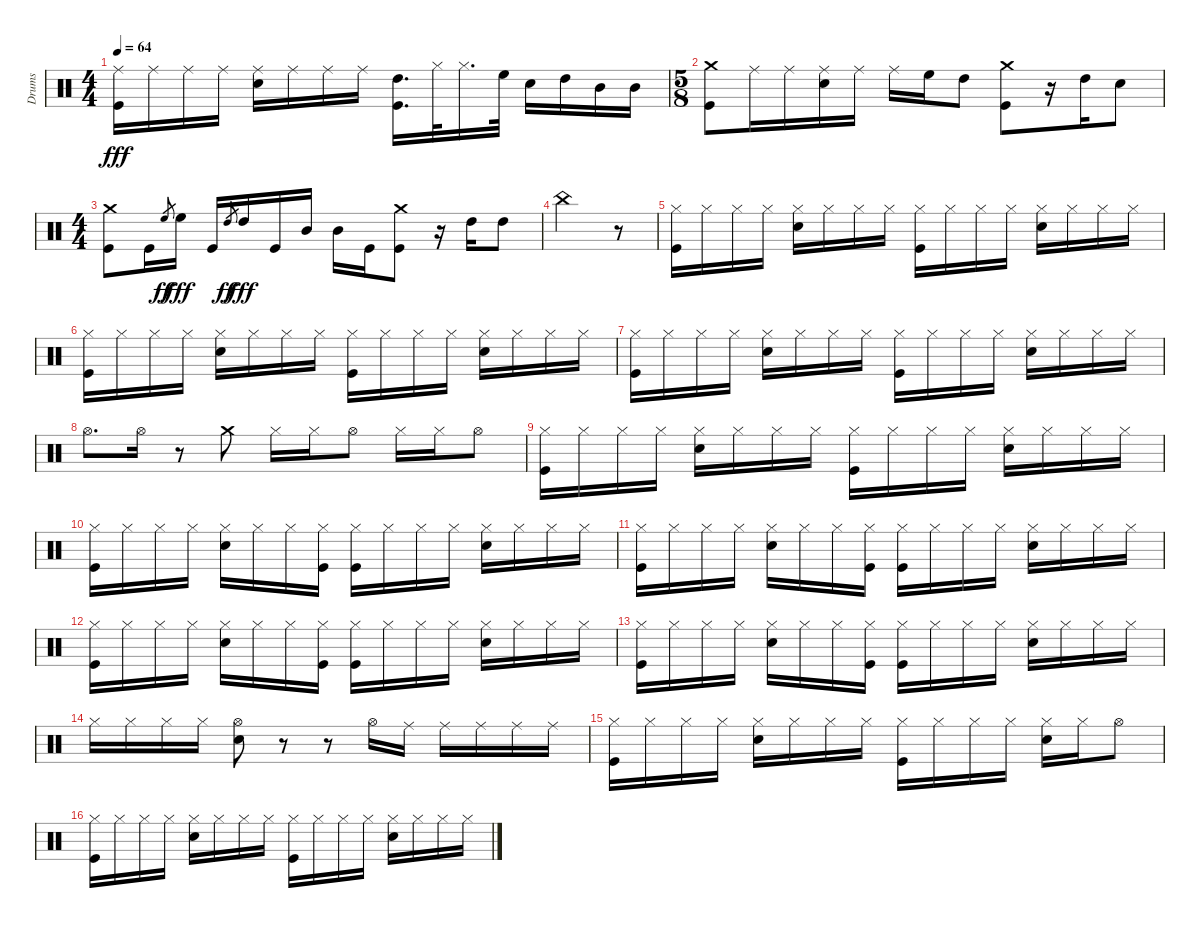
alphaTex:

\track ("Drums" "Drums") {instrument percussion}
\staff {score}
\articulation defaults
\ts (4 4)
\tempo 64
\clef neutral
\scale
0.333333
\ks c
("Ride (middle)" "Kick (hit)").16{dy fff} "Ride (middle)".16 "Ride (middle)".16 "Ride (middle)".16 ("Ride (middle)" "Snare (hit) 2").16 "Ride (middle)".16 "Ride (middle)".16 "Ride (middle)".16 ("High Tom (hit)" "Kick (hit)").16{d} "Hi-Hat (closed)".32 "Hi-Hat (closed)".16{d} "High Floor Tom (hit)".32 "Snare (hit) 2".16 "High Tom (hit)".16 "Mid Tom (hit)".16 "Mid Tom (hit)".16 |
\ts (5 8)
\scale
0.391473 ("Crash medium (hit)" "Kick (hit)").8 "Ride (middle)".16 "Ride (middle)".16 ("Ride (middle)" "Snare (hit) 2").16 "Ride (middle)".16 "Ride (middle)".16 "High Floor Tom (hit)".16 "High Tom (hit)".8 ("Crash medium (hit)" "Kick (hit)").8 r.16 "High Tom (hit)".16 "Snare (hit) 2".8 |
\ts (4 4)
\scale
0.391473 ("Crash medium (hit)" "Kick (hit)").8 "Kick (hit)".16 "High Floor Tom (hit)".8{gr dy ff} "High Floor Tom (hit)".16{dy fff} "Kick (hit)".16 "High Tom (hit)".8{gr dy ff} "High Tom (hit)".16{dy fff} "Kick (hit)".16 "Mid Tom (hit)".16 "Mid Tom (hit)".16 "Kick (hit)".16 ("Crash medium (hit)" "Kick (hit)").8 r.16 "High Tom (hit)".16 "High Tom (hit)".8 |
\scale
0.217054 "China (hit)".2 r.8 |
\scale
0.333333 ("Hi-Hat (closed)" "Kick (hit)").16 "Hi-Hat (closed)".16 "Hi-Hat (closed)".16 "Hi-Hat (closed)".16 ("Hi-Hat (closed)" "Snare (hit) 2").16 "Hi-Hat (closed)".16 "Hi-Hat (closed)".16 "Hi-Hat (closed)".16 ("Hi-Hat (closed)" "Kick (hit)").16 "Hi-Hat (closed)".16 "Hi-Hat (closed)".16 "Hi-Hat (closed)".16 ("Hi-Hat (closed)" "Snare (hit) 2").16 "Hi-Hat (closed)".16 "Hi-Hat (closed)".16 "Hi-Hat (closed)".16 |
\scale
0.333333 ("Hi-Hat (closed)" "Kick (hit)").16 "Hi-Hat (closed)".16 "Hi-Hat (closed)".16 "Hi-Hat (closed)".16 ("Hi-Hat (closed)" "Snare (hit) 2").16 "Hi-Hat (closed)".16 "Hi-Hat (closed)".16 "Hi-Hat (closed)".16 ("Hi-Hat (closed)" "Kick (hit)").16 "Hi-Hat (closed)".16 "Hi-Hat (closed)".16 "Hi-Hat (closed)".16 ("Hi-Hat (closed)" "Snare (hit) 2").16 "Hi-Hat (closed)".16 "Hi-Hat (closed)".16 "Hi-Hat (closed)".16 |
\scale
0.333333 ("Hi-Hat (closed)" "Kick (hit)").16 "Hi-Hat (closed)".16 "Hi-Hat (closed)".16 "Hi-Hat (closed)".16 ("Hi-Hat (closed)" "Snare (hit) 2").16 "Hi-Hat (closed)".16 "Hi-Hat (closed)".16 "Hi-Hat (closed)".16 ("Hi-Hat (closed)" "Kick (hit)").16 "Hi-Hat (closed)".16 "Hi-Hat (closed)".16 "Hi-Hat (closed)".16 ("Hi-Hat (closed)" "Snare (hit) 2").16 "Hi-Hat (closed)".16 "Hi-Hat (closed)".16 "Hi-Hat (closed)".16 |
\scale
0.333333 "Hi-Hat (open)".8{d} "Hi-Hat (open)".16 r.8 "Crash medium (hit)".8 "Hi-Hat (closed)".16 "Hi-Hat (closed)".16 "Hi-Hat (open)".8 "Hi-Hat (closed)".16 "Hi-Hat (closed)".16 "Hi-Hat (open)".8 |
\scale
0.333333 ("Hi-Hat (closed)" "Kick (hit)").16 "Hi-Hat (closed)".16 "Hi-Hat (closed)".16 "Hi-Hat (closed)".16 ("Hi-Hat (closed)" "Snare (hit) 2").16 "Hi-Hat (closed)".16 "Hi-Hat (closed)".16 "Hi-Hat (closed)".16 ("Hi-Hat (closed)" "Kick (hit)").16 "Hi-Hat (closed)".16 "Hi-Hat (closed)".16 "Hi-Hat (closed)".16 ("Hi-Hat (closed)" "Snare (hit) 2").16 "Hi-Hat (closed)".16 "Hi-Hat (closed)".16 "Hi-Hat (closed)".16 |
\scale
0.333333 ("Hi-Hat (closed)" "Kick (hit)").16 "Hi-Hat (closed)".16 "Hi-Hat (closed)".16 "Hi-Hat (closed)".16 ("Hi-Hat (closed)" "Snare (hit) 2").16 "Hi-Hat (closed)".16 "Hi-Hat (closed)".16 ("Hi-Hat (closed)" "Kick (hit)").16 ("Hi-Hat (closed)" "Kick (hit)").16 "Hi-Hat (closed)".16 "Hi-Hat (closed)".16 "Hi-Hat (closed)".16 ("Hi-Hat (closed)" "Snare (hit) 2").16 "Hi-Hat (closed)".16 "Hi-Hat (closed)".16 "Hi-Hat (closed)".16 |
\scale
0.333333 ("Hi-Hat (closed)" "Kick (hit)").16 "Hi-Hat (closed)".16 "Hi-Hat (closed)".16 "Hi-Hat (closed)".16 ("Hi-Hat (closed)" "Snare (hit) 2").16 "Hi-Hat (closed)".16 "Hi-Hat (closed)".16 ("Hi-Hat (closed)" "Kick (hit)").16 ("Hi-Hat (closed)" "Kick (hit)").16 "Hi-Hat (closed)".16 "Hi-Hat (closed)".16 "Hi-Hat (closed)".16 ("Hi-Hat (closed)" "Snare (hit) 2").16 "Hi-Hat (closed)".16 "Hi-Hat (closed)".16 "Hi-Hat (closed)".16 |
\scale
0.333333 ("Hi-Hat (closed)" "Kick (hit)").16 "Hi-Hat (closed)".16 "Hi-Hat (closed)".16 "Hi-Hat (closed)".16 ("Hi-Hat (closed)" "Snare (hit) 2").16 "Hi-Hat (closed)".16 "Hi-Hat (closed)".16 ("Hi-Hat (closed)" "Kick (hit)").16 ("Hi-Hat (closed)" "Kick (hit)").16 "Hi-Hat (closed)".16 "Hi-Hat (closed)".16 "Hi-Hat (closed)".16 ("Hi-Hat (closed)" "Snare (hit) 2").16 "Hi-Hat (closed)".16 "Hi-Hat (closed)".16 "Hi-Hat (closed)".16 |
\scale
0.333333 ("Hi-Hat (closed)" "Kick (hit)").16 "Hi-Hat (closed)".16 "Hi-Hat (closed)".16 "Hi-Hat (closed)".16 ("Hi-Hat (closed)" "Snare (hit) 2").16 "Hi-Hat (closed)".16 "Hi-Hat (closed)".16 ("Hi-Hat (closed)" "Kick (hit)").16 ("Hi-Hat (closed)" "Kick (hit)").16 "Hi-Hat (closed)".16 "Hi-Hat (closed)".16 "Hi-Hat (closed)".16 ("Hi-Hat (closed)" "Snare (hit) 2").16 "Hi-Hat (closed)".16 "Hi-Hat (closed)".16 "Hi-Hat (closed)".16 |
\scale
0.333333 "Hi-Hat (closed)".16 "Hi-Hat (closed)".16 "Hi-Hat (closed)".16 "Hi-Hat (closed)".16 ("Hi-Hat (open)" "Snare (hit) 2").8 r.8 r.8 "Hi-Hat (open)".16 "Ride (middle)".16 "Ride (middle)".16 "Ride (middle)".16 "Ride (middle)".16 "Ride (middle)".16 |
\scale
0.333333 ("Hi-Hat (closed)" "Kick (hit)").16 "Hi-Hat (closed)".16 "Hi-Hat (closed)".16 "Hi-Hat (closed)".16 ("Hi-Hat (closed)" "Snare (hit) 2").16 "Hi-Hat (closed)".16 "Hi-Hat (closed)".16 "Hi-Hat (closed)".16 ("Hi-Hat (closed)" "Kick (hit)").16 "Hi-Hat (closed)".16 "Hi-Hat (closed)".16 "Hi-Hat (closed)".16 ("Hi-Hat (closed)" "Snare (hit) 2").16 "Hi-Hat (closed)".16 "Hi-Hat (open)".8 |
\scale
0.333333 ("Hi-Hat (closed)" "Kick (hit)").16 "Hi-Hat (closed)".16 "Hi-Hat (closed)".16 "Hi-Hat (closed)".16 ("Hi-Hat (closed)" "Snare (hit) 2").16 "Hi-Hat (closed)".16 "Hi-Hat (closed)".16 "Hi-Hat (closed)".16 ("Hi-Hat (closed)" "Kick (hit)").16 "Hi-Hat (closed)".16 "Hi-Hat (closed)".16 "Hi-Hat (closed)".16 ("Hi-Hat (closed)" "Snare (hit) 2").16 "Hi-Hat (closed)".16 "Hi-Hat (closed)".16 "Hi-Hat (closed)".16
